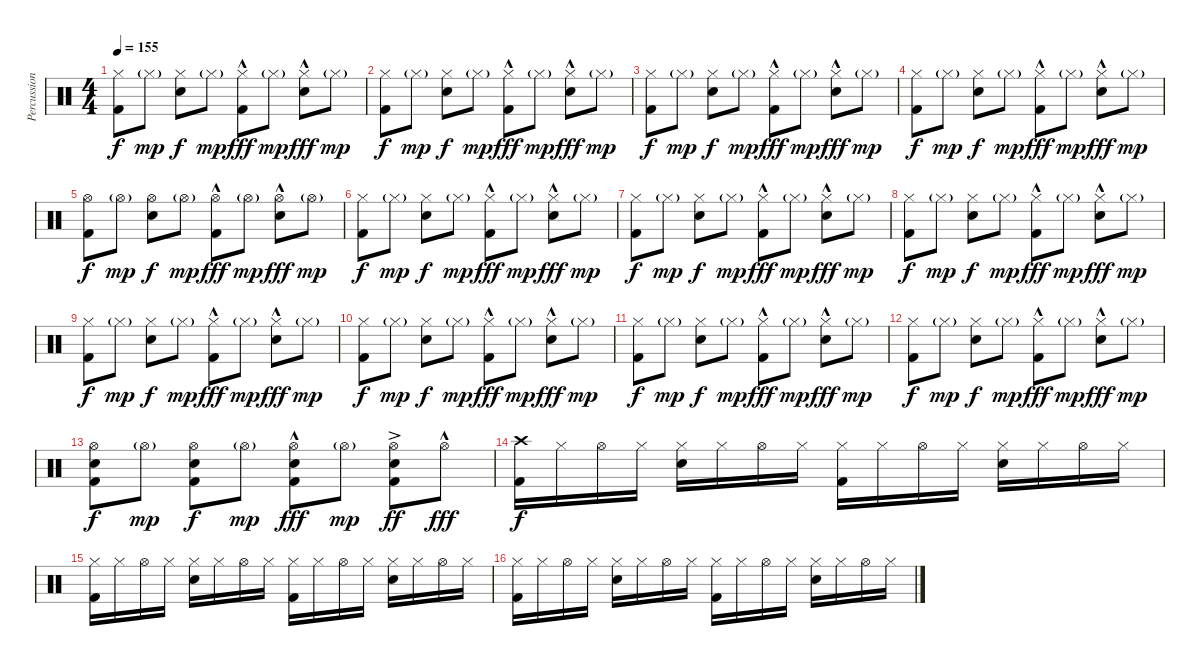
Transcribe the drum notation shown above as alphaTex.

\track ("Percussion" "Percussion") {instrument percussion}
\staff {score}
\articulation defaults
\ts (4 4)
\tempo 155
\clef neutral
\ks c
("Hi-Hat (closed)" "Kick (hit) 2").8{dy f} "Hi-Hat (closed)"{g}.8{dy mp} ("Hi-Hat (closed)" "Electric Snare (hit)").8{dy f} "Hi-Hat (closed)"{g}.8{dy mp} ("Hi-Hat (closed)"{hac} "Kick (hit) 2").8{dy fff} "Hi-Hat (closed)"{g}.8{dy mp} ("Hi-Hat (closed)"{hac} "Electric Snare (hit)").8{dy fff} "Hi-Hat (closed)"{g}.8{dy mp} |
("Hi-Hat (closed)" "Kick (hit) 2").8{dy f} "Hi-Hat (closed)"{g}.8{dy mp} ("Hi-Hat (closed)" "Electric Snare (hit)").8{dy f} "Hi-Hat (closed)"{g}.8{dy mp} ("Hi-Hat (closed)"{hac} "Kick (hit) 2").8{dy fff} "Hi-Hat (closed)"{g}.8{dy mp} ("Hi-Hat (closed)"{hac} "Electric Snare (hit)").8{dy fff} "Hi-Hat (closed)"{g}.8{dy mp} |
("Hi-Hat (closed)" "Kick (hit) 2").8{dy f} "Hi-Hat (closed)"{g}.8{dy mp} ("Hi-Hat (closed)" "Electric Snare (hit)").8{dy f} "Hi-Hat (closed)"{g}.8{dy mp} ("Hi-Hat (closed)"{hac} "Kick (hit) 2").8{dy fff} "Hi-Hat (closed)"{g}.8{dy mp} ("Hi-Hat (closed)"{hac} "Electric Snare (hit)").8{dy fff} "Hi-Hat (closed)"{g}.8{dy mp} |
("Hi-Hat (closed)" "Kick (hit) 2").8{dy f} "Hi-Hat (closed)"{g}.8{dy mp} ("Hi-Hat (closed)" "Electric Snare (hit)").8{dy f} "Hi-Hat (closed)"{g}.8{dy mp} ("Hi-Hat (closed)"{hac} "Kick (hit) 2").8{dy fff} "Hi-Hat (closed)"{g}.8{dy mp} ("Hi-Hat (closed)"{hac} "Electric Snare (hit)").8{dy fff} "Hi-Hat (closed)"{g}.8{dy mp} |
("Hi-Hat (open)" "Kick (hit) 2").8{dy f} "Hi-Hat (open)"{g}.8{dy mp} ("Hi-Hat (open)" "Electric Snare (hit)").8{dy f} "Hi-Hat (open)"{g}.8{dy mp} ("Hi-Hat (open)"{hac} "Kick (hit) 2").8{dy fff} "Hi-Hat (open)"{g}.8{dy mp} ("Hi-Hat (open)"{hac} "Electric Snare (hit)").8{dy fff} "Hi-Hat (open)"{g}.8{dy mp} |
("Hi-Hat (closed)" "Kick (hit) 2").8{dy f} "Hi-Hat (closed)"{g}.8{dy mp} ("Hi-Hat (closed)" "Electric Snare (hit)").8{dy f} "Hi-Hat (closed)"{g}.8{dy mp} ("Hi-Hat (closed)"{hac} "Kick (hit) 2").8{dy fff} "Hi-Hat (closed)"{g}.8{dy mp} ("Hi-Hat (closed)"{hac} "Electric Snare (hit)").8{dy fff} "Hi-Hat (closed)"{g}.8{dy mp} |
("Hi-Hat (closed)" "Kick (hit) 2").8{dy f} "Hi-Hat (closed)"{g}.8{dy mp} ("Hi-Hat (closed)" "Electric Snare (hit)").8{dy f} "Hi-Hat (closed)"{g}.8{dy mp} ("Hi-Hat (closed)"{hac} "Kick (hit) 2").8{dy fff} "Hi-Hat (closed)"{g}.8{dy mp} ("Hi-Hat (closed)"{hac} "Electric Snare (hit)").8{dy fff} "Hi-Hat (closed)"{g}.8{dy mp} |
("Hi-Hat (closed)" "Kick (hit) 2").8{dy f} "Hi-Hat (closed)"{g}.8{dy mp} ("Hi-Hat (closed)" "Electric Snare (hit)").8{dy f} "Hi-Hat (closed)"{g}.8{dy mp} ("Hi-Hat (closed)"{hac} "Kick (hit) 2").8{dy fff} "Hi-Hat (closed)"{g}.8{dy mp} ("Hi-Hat (closed)"{hac} "Electric Snare (hit)").8{dy fff} "Hi-Hat (closed)"{g}.8{dy mp} |
("Hi-Hat (closed)" "Kick (hit) 2").8{dy f} "Hi-Hat (closed)"{g}.8{dy mp} ("Hi-Hat (closed)" "Electric Snare (hit)").8{dy f} "Hi-Hat (closed)"{g}.8{dy mp} ("Hi-Hat (closed)"{hac} "Kick (hit) 2").8{dy fff} "Hi-Hat (closed)"{g}.8{dy mp} ("Hi-Hat (closed)"{hac} "Electric Snare (hit)").8{dy fff} "Hi-Hat (closed)"{g}.8{dy mp} |
("Hi-Hat (closed)" "Kick (hit) 2").8{dy f} "Hi-Hat (closed)"{g}.8{dy mp} ("Hi-Hat (closed)" "Electric Snare (hit)").8{dy f} "Hi-Hat (closed)"{g}.8{dy mp} ("Hi-Hat (closed)"{hac} "Kick (hit) 2").8{dy fff} "Hi-Hat (closed)"{g}.8{dy mp} ("Hi-Hat (closed)"{hac} "Electric Snare (hit)").8{dy fff} "Hi-Hat (closed)"{g}.8{dy mp} |
("Hi-Hat (closed)" "Kick (hit) 2").8{dy f} "Hi-Hat (closed)"{g}.8{dy mp} ("Hi-Hat (closed)" "Electric Snare (hit)").8{dy f} "Hi-Hat (closed)"{g}.8{dy mp} ("Hi-Hat (closed)"{hac} "Kick (hit) 2").8{dy fff} "Hi-Hat (closed)"{g}.8{dy mp} ("Hi-Hat (closed)"{hac} "Electric Snare (hit)").8{dy fff} "Hi-Hat (closed)"{g}.8{dy mp} |
("Hi-Hat (closed)" "Kick (hit) 2").8{dy f} "Hi-Hat (closed)"{g}.8{dy mp} ("Hi-Hat (closed)" "Electric Snare (hit)").8{dy f} "Hi-Hat (closed)"{g}.8{dy mp} ("Hi-Hat (closed)"{hac} "Kick (hit) 2").8{dy fff} "Hi-Hat (closed)"{g}.8{dy mp} ("Hi-Hat (closed)"{hac} "Electric Snare (hit)").8{dy fff} "Hi-Hat (closed)"{g}.8{dy mp} |
("Hi-Hat (open)" "Electric Snare (hit)" "Kick (hit) 2").8{dy f} "Hi-Hat (open)"{g}.8{dy mp} ("Hi-Hat (open)" "Electric Snare (hit)" "Kick (hit) 2").8{dy f} "Hi-Hat (open)"{g}.8{dy mp} ("Hi-Hat (open)"{hac} "Electric Snare (hit)" "Kick (hit) 2").8{dy fff} "Hi-Hat (open)"{g}.8{dy mp} ("Hi-Hat (open)"{ac} "Electric Snare (hit)" "Kick (hit) 2").8{dy ff} "Hi-Hat (open)"{hac}.8{dy fff} |
("Crash high (hit)" "Kick (hit) 2").16{dy f} "Hi-Hat (closed)".16 "Hi-Hat (open)".16 "Hi-Hat (closed)".16 ("Hi-Hat (closed)" "Electric Snare (hit)").16 "Hi-Hat (closed)".16 "Hi-Hat (open)".16 "Hi-Hat (closed)".16 ("Hi-Hat (closed)" "Kick (hit) 2").16 "Hi-Hat (closed)".16 "Hi-Hat (open)".16 "Hi-Hat (closed)".16 ("Hi-Hat (closed)" "Electric Snare (hit)").16 "Hi-Hat (closed)".16 "Hi-Hat (open)".16 "Hi-Hat (closed)".16 |
("Hi-Hat (closed)" "Kick (hit) 2").16 "Hi-Hat (closed)".16 "Hi-Hat (open)".16 "Hi-Hat (closed)".16 ("Hi-Hat (closed)" "Electric Snare (hit)").16 "Hi-Hat (closed)".16 "Hi-Hat (open)".16 "Hi-Hat (closed)".16 ("Hi-Hat (closed)" "Kick (hit) 2").16 "Hi-Hat (closed)".16 "Hi-Hat (open)".16 "Hi-Hat (closed)".16 ("Hi-Hat (closed)" "Electric Snare (hit)").16 "Hi-Hat (closed)".16 "Hi-Hat (open)".16 "Hi-Hat (closed)".16 |
("Hi-Hat (closed)" "Kick (hit) 2").16 "Hi-Hat (closed)".16 "Hi-Hat (open)".16 "Hi-Hat (closed)".16 ("Hi-Hat (closed)" "Electric Snare (hit)").16 "Hi-Hat (closed)".16 "Hi-Hat (open)".16 "Hi-Hat (closed)".16 ("Hi-Hat (closed)" "Kick (hit) 2").16 "Hi-Hat (closed)".16 "Hi-Hat (open)".16 "Hi-Hat (closed)".16 ("Hi-Hat (closed)" "Electric Snare (hit)").16 "Hi-Hat (closed)".16 "Hi-Hat (open)".16 "Hi-Hat (closed)".16
